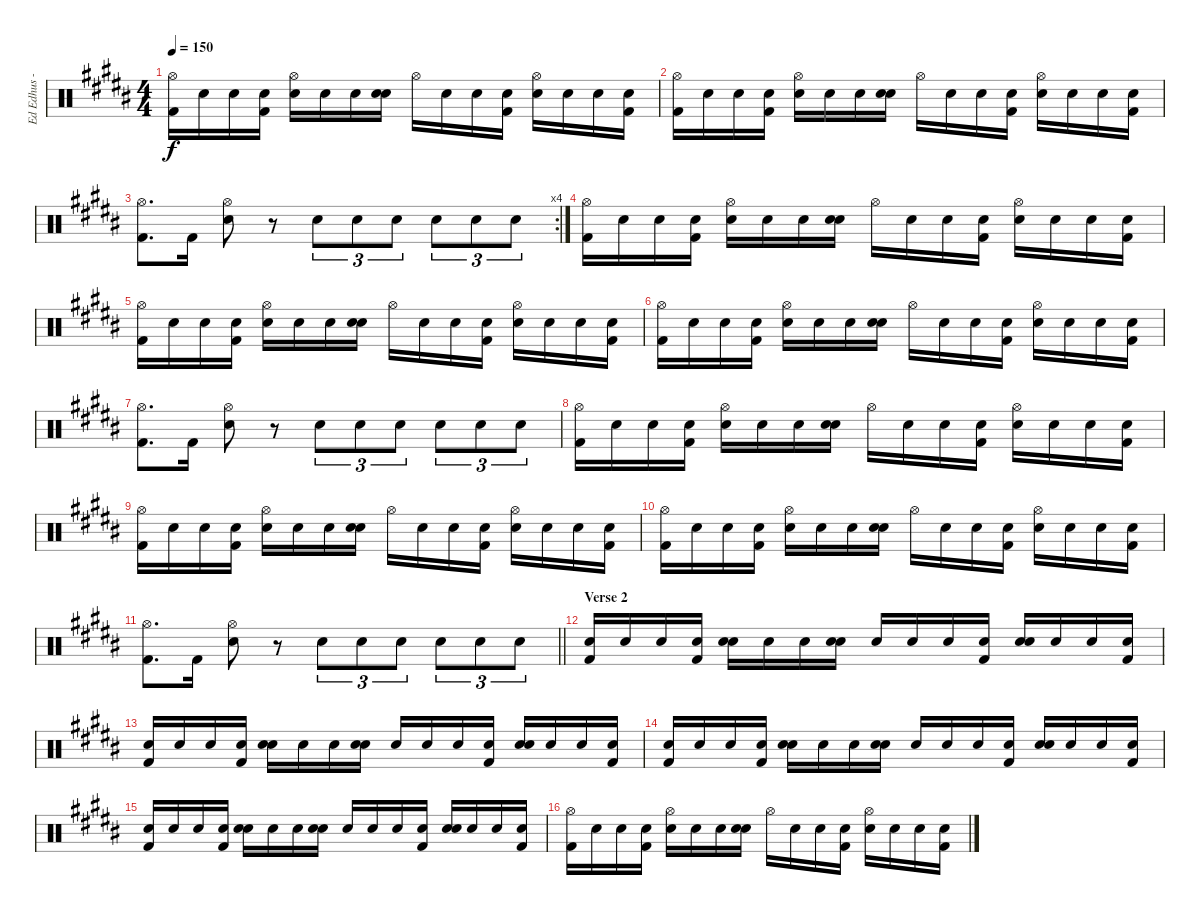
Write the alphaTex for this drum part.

\track ("Ed Edhus - Drums" "Ed Edhus -") {instrument percussion bank 127}
\staff {score}
\articulation defaults
\ts (4 4)
\tempo 150
\clef neutral
\ks g#minor
("Hi-Hat (open)" "Kick (hit) 2").16{dy f} "Snare (hit)".16 "Snare (hit)".16 ("Snare (hit)" "Kick (hit) 2").16 ("Hi-Hat (open)" "Snare (hit) 2").16 "Snare (hit)".16 "Snare (hit)".16 ("Snare (hit)" "Snare (hit) 2").16 "Hi-Hat (open)".16 "Snare (hit)".16 "Snare (hit)".16 ("Snare (hit)" "Kick (hit) 2").16 ("Hi-Hat (open)" "Snare (hit) 2").16 "Snare (hit)".16 "Snare (hit)".16 ("Snare (hit)" "Kick (hit) 2").16 |
("Hi-Hat (open)" "Kick (hit) 2").16 "Snare (hit)".16 "Snare (hit)".16 ("Snare (hit)" "Kick (hit) 2").16 ("Hi-Hat (open)" "Snare (hit) 2").16 "Snare (hit)".16 "Snare (hit)".16 ("Snare (hit)" "Snare (hit) 2").16 "Hi-Hat (open)".16 "Snare (hit)".16 "Snare (hit)".16 ("Snare (hit)" "Kick (hit) 2").16 ("Hi-Hat (open)" "Snare (hit) 2").16 "Snare (hit)".16 "Snare (hit)".16 ("Snare (hit)" "Kick (hit) 2").16 |
\rc 4
("Hi-Hat (open)" "Kick (hit) 2").8{d} "Kick (hit) 2".16 ("Hi-Hat (open)" "Snare (hit) 2").8 r.8 "Snare (hit) 2".8{tu (3 2)} "Snare (hit) 2".8{tu (3 2)} "Snare (hit) 2".8{tu (3 2)} "Snare (hit) 2".8{tu (3 2)} "Snare (hit) 2".8{tu (3 2)} "Snare (hit) 2".8{tu (3 2)} |
("Hi-Hat (open)" "Kick (hit) 2").16 "Snare (hit)".16 "Snare (hit)".16 ("Snare (hit)" "Kick (hit) 2").16 ("Hi-Hat (open)" "Snare (hit) 2").16 "Snare (hit)".16 "Snare (hit)".16 ("Snare (hit)" "Snare (hit) 2").16 "Hi-Hat (open)".16 "Snare (hit)".16 "Snare (hit)".16 ("Snare (hit)" "Kick (hit) 2").16 ("Hi-Hat (open)" "Snare (hit) 2").16 "Snare (hit)".16 "Snare (hit)".16 ("Snare (hit)" "Kick (hit) 2").16 |
("Hi-Hat (open)" "Kick (hit) 2").16 "Snare (hit)".16 "Snare (hit)".16 ("Snare (hit)" "Kick (hit) 2").16 ("Hi-Hat (open)" "Snare (hit) 2").16 "Snare (hit)".16 "Snare (hit)".16 ("Snare (hit)" "Snare (hit) 2").16 "Hi-Hat (open)".16 "Snare (hit)".16 "Snare (hit)".16 ("Snare (hit)" "Kick (hit) 2").16 ("Hi-Hat (open)" "Snare (hit) 2").16 "Snare (hit)".16 "Snare (hit)".16 ("Snare (hit)" "Kick (hit) 2").16 |
("Hi-Hat (open)" "Kick (hit) 2").16 "Snare (hit)".16 "Snare (hit)".16 ("Snare (hit)" "Kick (hit) 2").16 ("Hi-Hat (open)" "Snare (hit) 2").16 "Snare (hit)".16 "Snare (hit)".16 ("Snare (hit)" "Snare (hit) 2").16 "Hi-Hat (open)".16 "Snare (hit)".16 "Snare (hit)".16 ("Snare (hit)" "Kick (hit) 2").16 ("Hi-Hat (open)" "Snare (hit) 2").16 "Snare (hit)".16 "Snare (hit)".16 ("Snare (hit)" "Kick (hit) 2").16 |
("Hi-Hat (open)" "Kick (hit) 2").8{d} "Kick (hit) 2".16 ("Hi-Hat (open)" "Snare (hit) 2").8 r.8 "Snare (hit) 2".8{tu (3 2)} "Snare (hit) 2".8{tu (3 2)} "Snare (hit) 2".8{tu (3 2)} "Snare (hit) 2".8{tu (3 2)} "Snare (hit) 2".8{tu (3 2)} "Snare (hit) 2".8{tu (3 2)} |
("Hi-Hat (open)" "Kick (hit) 2").16 "Snare (hit)".16 "Snare (hit)".16 ("Snare (hit)" "Kick (hit) 2").16 ("Hi-Hat (open)" "Snare (hit) 2").16 "Snare (hit)".16 "Snare (hit)".16 ("Snare (hit)" "Snare (hit) 2").16 "Hi-Hat (open)".16 "Snare (hit)".16 "Snare (hit)".16 ("Snare (hit)" "Kick (hit) 2").16 ("Hi-Hat (open)" "Snare (hit) 2").16 "Snare (hit)".16 "Snare (hit)".16 ("Snare (hit)" "Kick (hit) 2").16 |
("Hi-Hat (open)" "Kick (hit) 2").16 "Snare (hit)".16 "Snare (hit)".16 ("Snare (hit)" "Kick (hit) 2").16 ("Hi-Hat (open)" "Snare (hit) 2").16 "Snare (hit)".16 "Snare (hit)".16 ("Snare (hit)" "Snare (hit) 2").16 "Hi-Hat (open)".16 "Snare (hit)".16 "Snare (hit)".16 ("Snare (hit)" "Kick (hit) 2").16 ("Hi-Hat (open)" "Snare (hit) 2").16 "Snare (hit)".16 "Snare (hit)".16 ("Snare (hit)" "Kick (hit) 2").16 |
("Hi-Hat (open)" "Kick (hit) 2").16 "Snare (hit)".16 "Snare (hit)".16 ("Snare (hit)" "Kick (hit) 2").16 ("Hi-Hat (open)" "Snare (hit) 2").16 "Snare (hit)".16 "Snare (hit)".16 ("Snare (hit)" "Snare (hit) 2").16 "Hi-Hat (open)".16 "Snare (hit)".16 "Snare (hit)".16 ("Snare (hit)" "Kick (hit) 2").16 ("Hi-Hat (open)" "Snare (hit) 2").16 "Snare (hit)".16 "Snare (hit)".16 ("Snare (hit)" "Kick (hit) 2").16 |
\barLineRight lightlight
("Hi-Hat (open)" "Kick (hit) 2").8{d} "Kick (hit) 2".16 ("Hi-Hat (open)" "Snare (hit) 2").8 r.8 "Snare (hit) 2".8{tu (3 2)} "Snare (hit) 2".8{tu (3 2)} "Snare (hit) 2".8{tu (3 2)} "Snare (hit) 2".8{tu (3 2)} "Snare (hit) 2".8{tu (3 2)} "Snare (hit) 2".8{tu (3 2)} |
\section ("" "Verse 2")
("Snare (hit)" "Kick (hit) 2").16 "Snare (hit)".16 "Snare (hit)".16 ("Snare (hit)" "Kick (hit) 2").16 ("Snare (hit)" "Snare (hit) 2").16 "Snare (hit)".16 "Snare (hit)".16 ("Snare (hit)" "Snare (hit) 2").16 "Snare (hit)".16 "Snare (hit)".16 "Snare (hit)".16 ("Snare (hit)" "Kick (hit) 2").16 ("Snare (hit)" "Snare (hit) 2").16 "Snare (hit)".16 "Snare (hit)".16 ("Snare (hit)" "Kick (hit) 2").16 |
("Snare (hit)" "Kick (hit) 2").16 "Snare (hit)".16 "Snare (hit)".16 ("Snare (hit)" "Kick (hit) 2").16 ("Snare (hit)" "Snare (hit) 2").16 "Snare (hit)".16 "Snare (hit)".16 ("Snare (hit)" "Snare (hit) 2").16 "Snare (hit)".16 "Snare (hit)".16 "Snare (hit)".16 ("Snare (hit)" "Kick (hit) 2").16 ("Snare (hit)" "Snare (hit) 2").16 "Snare (hit)".16 "Snare (hit)".16 ("Snare (hit)" "Kick (hit) 2").16 |
("Snare (hit)" "Kick (hit) 2").16 "Snare (hit)".16 "Snare (hit)".16 ("Snare (hit)" "Kick (hit) 2").16 ("Snare (hit)" "Snare (hit) 2").16 "Snare (hit)".16 "Snare (hit)".16 ("Snare (hit)" "Snare (hit) 2").16 "Snare (hit)".16 "Snare (hit)".16 "Snare (hit)".16 ("Snare (hit)" "Kick (hit) 2").16 ("Snare (hit)" "Snare (hit) 2").16 "Snare (hit)".16 "Snare (hit)".16 ("Snare (hit)" "Kick (hit) 2").16 |
("Snare (hit)" "Kick (hit) 2").16 "Snare (hit)".16 "Snare (hit)".16 ("Snare (hit)" "Kick (hit) 2").16 ("Snare (hit)" "Snare (hit) 2").16 "Snare (hit)".16 "Snare (hit)".16 ("Snare (hit)" "Snare (hit) 2").16 "Snare (hit)".16 "Snare (hit)".16 "Snare (hit)".16 ("Snare (hit)" "Kick (hit) 2").16 ("Snare (hit)" "Snare (hit) 2").16 "Snare (hit)".16 "Snare (hit)".16 ("Snare (hit)" "Kick (hit) 2").16 |
("Hi-Hat (open)" "Kick (hit) 2").16 "Snare (hit)".16 "Snare (hit)".16 ("Snare (hit)" "Kick (hit) 2").16 ("Hi-Hat (open)" "Snare (hit) 2").16 "Snare (hit)".16 "Snare (hit)".16 ("Snare (hit)" "Snare (hit) 2").16 "Hi-Hat (open)".16 "Snare (hit)".16 "Snare (hit)".16 ("Snare (hit)" "Kick (hit) 2").16 ("Hi-Hat (open)" "Snare (hit) 2").16 "Snare (hit)".16 "Snare (hit)".16 ("Snare (hit)" "Kick (hit) 2").16
